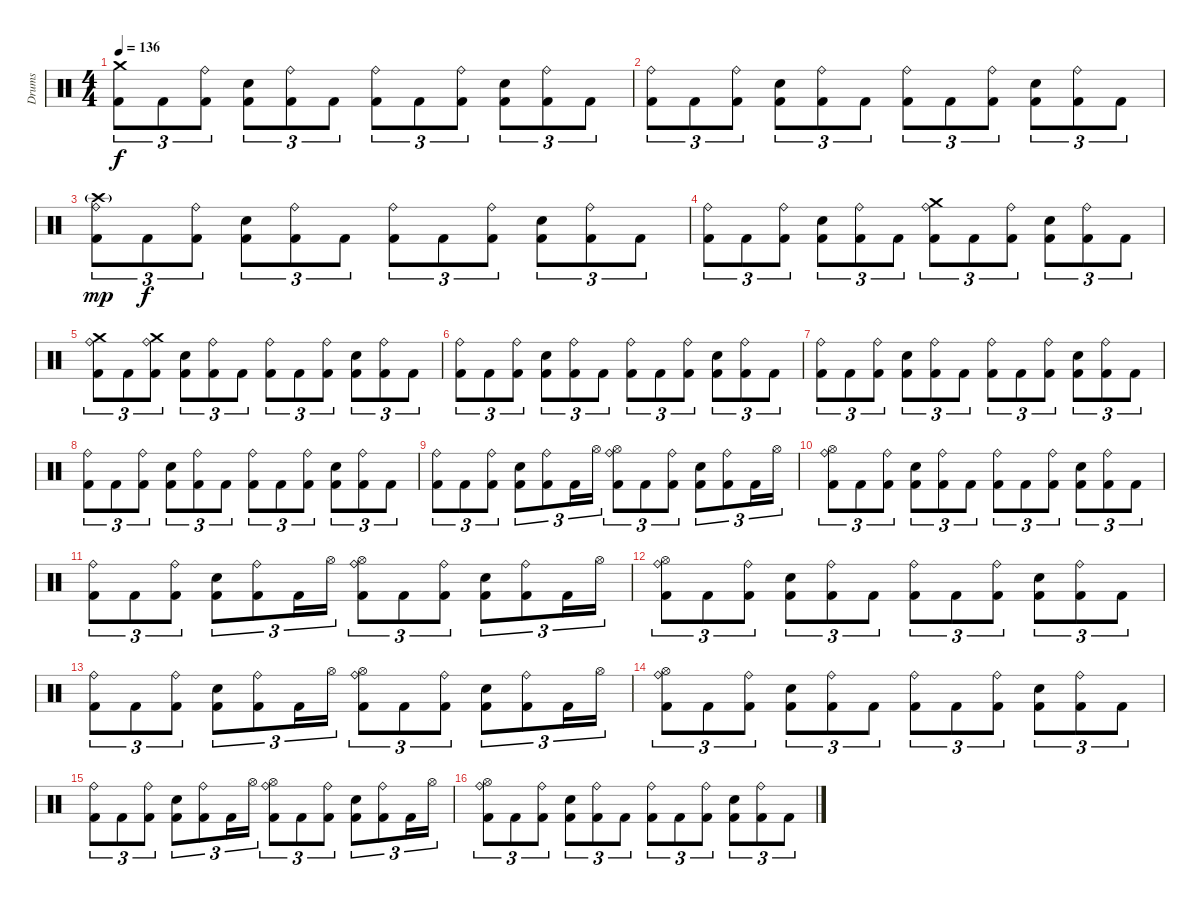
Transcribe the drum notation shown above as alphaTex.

\track ("Drums" "Drums") {instrument percussion}
\staff {score}
\articulation defaults
\ts (4 4)
\tempo 136
\clef neutral
\ks c
("Crash medium (hit)" "Kick (hit) 2").8{tu (3 2) dy f} "Kick (hit) 2".8{tu (3 2)} ("Ride (bell)" "Kick (hit) 2").8{tu (3 2)} ("Electric Snare (hit)" "Kick (hit) 2").8{tu (3 2)} ("Ride (bell)" "Kick (hit) 2").8{tu (3 2)} "Kick (hit) 2".8{tu (3 2)} ("Ride (bell)" "Kick (hit) 2").8{tu (3 2)} "Kick (hit) 2".8{tu (3 2)} ("Ride (bell)" "Kick (hit) 2").8{tu (3 2)} ("Electric Snare (hit)" "Kick (hit) 2").8{tu (3 2)} ("Ride (bell)" "Kick (hit) 2").8{tu (3 2)} "Kick (hit) 2".8{tu (3 2)} |
("Ride (bell)" "Kick (hit) 2").8{tu (3 2)} "Kick (hit) 2".8{tu (3 2)} ("Ride (bell)" "Kick (hit) 2").8{tu (3 2)} ("Electric Snare (hit)" "Kick (hit) 2").8{tu (3 2)} ("Ride (bell)" "Kick (hit) 2").8{tu (3 2)} "Kick (hit) 2".8{tu (3 2)} ("Ride (bell)" "Kick (hit) 2").8{tu (3 2)} "Kick (hit) 2".8{tu (3 2)} ("Ride (bell)" "Kick (hit) 2").8{tu (3 2)} ("Electric Snare (hit)" "Kick (hit) 2").8{tu (3 2)} ("Ride (bell)" "Kick (hit) 2").8{tu (3 2)} "Kick (hit) 2".8{tu (3 2)} |
("Crash high (hit)"{g} "Ride (bell)" "Kick (hit) 2").8{tu (3 2) dy mp} "Kick (hit) 2".8{tu (3 2) dy f} ("Ride (bell)" "Kick (hit) 2").8{tu (3 2)} ("Electric Snare (hit)" "Kick (hit) 2").8{tu (3 2)} ("Ride (bell)" "Kick (hit) 2").8{tu (3 2)} "Kick (hit) 2".8{tu (3 2)} ("Ride (bell)" "Kick (hit) 2").8{tu (3 2)} "Kick (hit) 2".8{tu (3 2)} ("Ride (bell)" "Kick (hit) 2").8{tu (3 2)} ("Electric Snare (hit)" "Kick (hit) 2").8{tu (3 2)} ("Ride (bell)" "Kick (hit) 2").8{tu (3 2)} "Kick (hit) 2".8{tu (3 2)} |
("Ride (bell)" "Kick (hit) 2").8{tu (3 2)} "Kick (hit) 2".8{tu (3 2)} ("Ride (bell)" "Kick (hit) 2").8{tu (3 2)} ("Electric Snare (hit)" "Kick (hit) 2").8{tu (3 2)} ("Ride (bell)" "Kick (hit) 2").8{tu (3 2)} "Kick (hit) 2".8{tu (3 2)} ("Crash medium (hit)" "Ride (bell)" "Kick (hit) 2").8{tu (3 2)} "Kick (hit) 2".8{tu (3 2)} ("Ride (bell)" "Kick (hit) 2").8{tu (3 2)} ("Electric Snare (hit)" "Kick (hit) 2").8{tu (3 2)} ("Ride (bell)" "Kick (hit) 2").8{tu (3 2)} "Kick (hit) 2".8{tu (3 2)} |
("Crash medium (hit)" "Ride (bell)" "Kick (hit) 2").8{tu (3 2)} "Kick (hit) 2".8{tu (3 2)} ("Crash medium (hit)" "Ride (bell)" "Kick (hit) 2").8{tu (3 2)} ("Electric Snare (hit)" "Kick (hit) 2").8{tu (3 2)} ("Ride (bell)" "Kick (hit) 2").8{tu (3 2)} "Kick (hit) 2".8{tu (3 2)} ("Ride (bell)" "Kick (hit) 2").8{tu (3 2)} "Kick (hit) 2".8{tu (3 2)} ("Ride (bell)" "Kick (hit) 2").8{tu (3 2)} ("Electric Snare (hit)" "Kick (hit) 2").8{tu (3 2)} ("Ride (bell)" "Kick (hit) 2").8{tu (3 2)} "Kick (hit) 2".8{tu (3 2)} |
("Ride (bell)" "Kick (hit) 2").8{tu (3 2)} "Kick (hit) 2".8{tu (3 2)} ("Ride (bell)" "Kick (hit) 2").8{tu (3 2)} ("Electric Snare (hit)" "Kick (hit) 2").8{tu (3 2)} ("Ride (bell)" "Kick (hit) 2").8{tu (3 2)} "Kick (hit) 2".8{tu (3 2)} ("Ride (bell)" "Kick (hit) 2").8{tu (3 2)} "Kick (hit) 2".8{tu (3 2)} ("Ride (bell)" "Kick (hit) 2").8{tu (3 2)} ("Electric Snare (hit)" "Kick (hit) 2").8{tu (3 2)} ("Ride (bell)" "Kick (hit) 2").8{tu (3 2)} "Kick (hit) 2".8{tu (3 2)} |
("Ride (bell)" "Kick (hit) 2").8{tu (3 2)} "Kick (hit) 2".8{tu (3 2)} ("Ride (bell)" "Kick (hit) 2").8{tu (3 2)} ("Electric Snare (hit)" "Kick (hit) 2").8{tu (3 2)} ("Ride (bell)" "Kick (hit) 2").8{tu (3 2)} "Kick (hit) 2".8{tu (3 2)} ("Ride (bell)" "Kick (hit) 2").8{tu (3 2)} "Kick (hit) 2".8{tu (3 2)} ("Ride (bell)" "Kick (hit) 2").8{tu (3 2)} ("Electric Snare (hit)" "Kick (hit) 2").8{tu (3 2)} ("Ride (bell)" "Kick (hit) 2").8{tu (3 2)} "Kick (hit) 2".8{tu (3 2)} |
("Ride (bell)" "Kick (hit) 2").8{tu (3 2)} "Kick (hit) 2".8{tu (3 2)} ("Ride (bell)" "Kick (hit) 2").8{tu (3 2)} ("Electric Snare (hit)" "Kick (hit) 2").8{tu (3 2)} ("Ride (bell)" "Kick (hit) 2").8{tu (3 2)} "Kick (hit) 2".8{tu (3 2)} ("Ride (bell)" "Kick (hit) 2").8{tu (3 2)} "Kick (hit) 2".8{tu (3 2)} ("Ride (bell)" "Kick (hit) 2").8{tu (3 2)} ("Electric Snare (hit)" "Kick (hit) 2").8{tu (3 2)} ("Ride (bell)" "Kick (hit) 2").8{tu (3 2)} "Kick (hit) 2".8{tu (3 2)} |
("Ride (bell)" "Kick (hit) 2").8{tu (3 2)} "Kick (hit) 2".8{tu (3 2)} ("Ride (bell)" "Kick (hit) 2").8{tu (3 2)} ("Electric Snare (hit)" "Kick (hit) 2").8{tu (3 2)} ("Ride (bell)" "Kick (hit) 2").8{tu (3 2)} "Kick (hit) 2".16{tu (3 2)} "Hi-Hat (open)".16{tu (3 2)} ("Ride (bell)" "Hi-Hat (open)" "Kick (hit) 2").8{tu (3 2)} "Kick (hit) 2".8{tu (3 2)} ("Ride (bell)" "Kick (hit) 2").8{tu (3 2)} ("Electric Snare (hit)" "Kick (hit) 2").8{tu (3 2)} ("Ride (bell)" "Kick (hit) 2").8{tu (3 2)} "Kick (hit) 2".16{tu (3 2)} "Hi-Hat (open)".16{tu (3 2)} |
("Ride (bell)" "Hi-Hat (open)" "Kick (hit) 2").8{tu (3 2)} "Kick (hit) 2".8{tu (3 2)} ("Ride (bell)" "Kick (hit) 2").8{tu (3 2)} ("Electric Snare (hit)" "Kick (hit) 2").8{tu (3 2)} ("Ride (bell)" "Kick (hit) 2").8{tu (3 2)} "Kick (hit) 2".8{tu (3 2)} ("Ride (bell)" "Kick (hit) 2").8{tu (3 2)} "Kick (hit) 2".8{tu (3 2)} ("Ride (bell)" "Kick (hit) 2").8{tu (3 2)} ("Electric Snare (hit)" "Kick (hit) 2").8{tu (3 2)} ("Ride (bell)" "Kick (hit) 2").8{tu (3 2)} "Kick (hit) 2".8{tu (3 2)} |
("Ride (bell)" "Kick (hit) 2").8{tu (3 2)} "Kick (hit) 2".8{tu (3 2)} ("Ride (bell)" "Kick (hit) 2").8{tu (3 2)} ("Electric Snare (hit)" "Kick (hit) 2").8{tu (3 2)} ("Ride (bell)" "Kick (hit) 2").8{tu (3 2)} "Kick (hit) 2".16{tu (3 2)} "Hi-Hat (open)".16{tu (3 2)} ("Ride (bell)" "Hi-Hat (open)" "Kick (hit) 2").8{tu (3 2)} "Kick (hit) 2".8{tu (3 2)} ("Ride (bell)" "Kick (hit) 2").8{tu (3 2)} ("Electric Snare (hit)" "Kick (hit) 2").8{tu (3 2)} ("Ride (bell)" "Kick (hit) 2").8{tu (3 2)} "Kick (hit) 2".16{tu (3 2)} "Hi-Hat (open)".16{tu (3 2)} |
("Ride (bell)" "Hi-Hat (open)" "Kick (hit) 2").8{tu (3 2)} "Kick (hit) 2".8{tu (3 2)} ("Ride (bell)" "Kick (hit) 2").8{tu (3 2)} ("Electric Snare (hit)" "Kick (hit) 2").8{tu (3 2)} ("Ride (bell)" "Kick (hit) 2").8{tu (3 2)} "Kick (hit) 2".8{tu (3 2)} ("Ride (bell)" "Kick (hit) 2").8{tu (3 2)} "Kick (hit) 2".8{tu (3 2)} ("Ride (bell)" "Kick (hit) 2").8{tu (3 2)} ("Electric Snare (hit)" "Kick (hit) 2").8{tu (3 2)} ("Ride (bell)" "Kick (hit) 2").8{tu (3 2)} "Kick (hit) 2".8{tu (3 2)} |
("Ride (bell)" "Kick (hit) 2").8{tu (3 2)} "Kick (hit) 2".8{tu (3 2)} ("Ride (bell)" "Kick (hit) 2").8{tu (3 2)} ("Electric Snare (hit)" "Kick (hit) 2").8{tu (3 2)} ("Ride (bell)" "Kick (hit) 2").8{tu (3 2)} "Kick (hit) 2".16{tu (3 2)} "Hi-Hat (open)".16{tu (3 2)} ("Ride (bell)" "Hi-Hat (open)" "Kick (hit) 2").8{tu (3 2)} "Kick (hit) 2".8{tu (3 2)} ("Ride (bell)" "Kick (hit) 2").8{tu (3 2)} ("Electric Snare (hit)" "Kick (hit) 2").8{tu (3 2)} ("Ride (bell)" "Kick (hit) 2").8{tu (3 2)} "Kick (hit) 2".16{tu (3 2)} "Hi-Hat (open)".16{tu (3 2)} |
("Ride (bell)" "Hi-Hat (open)" "Kick (hit) 2").8{tu (3 2)} "Kick (hit) 2".8{tu (3 2)} ("Ride (bell)" "Kick (hit) 2").8{tu (3 2)} ("Electric Snare (hit)" "Kick (hit) 2").8{tu (3 2)} ("Ride (bell)" "Kick (hit) 2").8{tu (3 2)} "Kick (hit) 2".8{tu (3 2)} ("Ride (bell)" "Kick (hit) 2").8{tu (3 2)} "Kick (hit) 2".8{tu (3 2)} ("Ride (bell)" "Kick (hit) 2").8{tu (3 2)} ("Electric Snare (hit)" "Kick (hit) 2").8{tu (3 2)} ("Ride (bell)" "Kick (hit) 2").8{tu (3 2)} "Kick (hit) 2".8{tu (3 2)} |
("Ride (bell)" "Kick (hit) 2").8{tu (3 2)} "Kick (hit) 2".8{tu (3 2)} ("Ride (bell)" "Kick (hit) 2").8{tu (3 2)} ("Electric Snare (hit)" "Kick (hit) 2").8{tu (3 2)} ("Ride (bell)" "Kick (hit) 2").8{tu (3 2)} "Kick (hit) 2".16{tu (3 2)} "Hi-Hat (open)".16{tu (3 2)} ("Ride (bell)" "Hi-Hat (open)" "Kick (hit) 2").8{tu (3 2)} "Kick (hit) 2".8{tu (3 2)} ("Ride (bell)" "Kick (hit) 2").8{tu (3 2)} ("Electric Snare (hit)" "Kick (hit) 2").8{tu (3 2)} ("Ride (bell)" "Kick (hit) 2").8{tu (3 2)} "Kick (hit) 2".16{tu (3 2)} "Hi-Hat (open)".16{tu (3 2)} |
("Ride (bell)" "Hi-Hat (open)" "Kick (hit) 2").8{tu (3 2)} "Kick (hit) 2".8{tu (3 2)} ("Ride (bell)" "Kick (hit) 2").8{tu (3 2)} ("Electric Snare (hit)" "Kick (hit) 2").8{tu (3 2)} ("Ride (bell)" "Kick (hit) 2").8{tu (3 2)} "Kick (hit) 2".8{tu (3 2)} ("Ride (bell)" "Kick (hit) 2").8{tu (3 2)} "Kick (hit) 2".8{tu (3 2)} ("Ride (bell)" "Kick (hit) 2").8{tu (3 2)} ("Electric Snare (hit)" "Kick (hit) 2").8{tu (3 2)} ("Ride (bell)" "Kick (hit) 2").8{tu (3 2)} "Kick (hit) 2".8{tu (3 2)}
